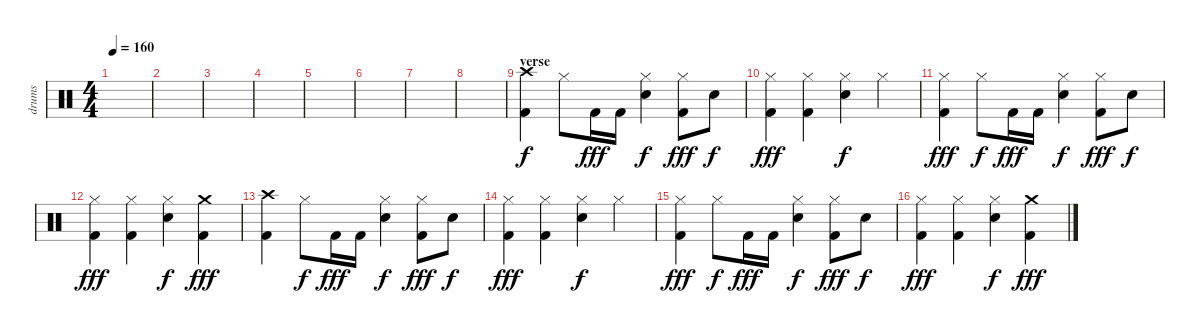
\track ("drums" "drums") {instrument percussion}
\staff {score}
\articulation defaults
\ts (4 4)
\tempo 160
\clef neutral
\ks c
|
|
|
|
|
|
|
|
\section ("" "verse")
("Crash high (hit)" "Kick (hit) 2").4 "Hi-Hat (closed)".8{dy f} "Kick (hit) 2".16{dy fff} "Kick (hit) 2".16 ("Hi-Hat (closed)" "Snare (hit) 2").4{dy f} ("Hi-Hat (closed)" "Kick (hit) 2").8{dy fff} "Snare (hit) 2".8{dy f} |
("Hi-Hat (closed)" "Kick (hit) 2").4{dy fff} ("Hi-Hat (closed)" "Kick (hit) 2").4 ("Hi-Hat (closed)" "Snare (hit) 2").4{dy f} "Hi-Hat (closed)".4 |
("Hi-Hat (closed)" "Kick (hit) 2").4{dy fff} "Hi-Hat (closed)".8{dy f} "Kick (hit) 2".16{dy fff} "Kick (hit) 2".16 ("Hi-Hat (closed)" "Snare (hit) 2").4{dy f} ("Hi-Hat (closed)" "Kick (hit) 2").8{dy fff} "Snare (hit) 2".8{dy f} |
("Hi-Hat (closed)" "Kick (hit) 2").4{dy fff} ("Hi-Hat (closed)" "Kick (hit) 2").4 ("Hi-Hat (closed)" "Snare (hit) 2").4{dy f} ("Crash medium (hit)" "Kick (hit) 2").4{dy fff} |
("Crash high (hit)" "Kick (hit) 2").4 "Hi-Hat (closed)".8{dy f} "Kick (hit) 2".16{dy fff} "Kick (hit) 2".16 ("Hi-Hat (closed)" "Snare (hit) 2").4{dy f} ("Hi-Hat (closed)" "Kick (hit) 2").8{dy fff} "Snare (hit) 2".8{dy f} |
("Hi-Hat (closed)" "Kick (hit) 2").4{dy fff} ("Hi-Hat (closed)" "Kick (hit) 2").4 ("Hi-Hat (closed)" "Snare (hit) 2").4{dy f} "Hi-Hat (closed)".4 |
("Hi-Hat (closed)" "Kick (hit) 2").4{dy fff} "Hi-Hat (closed)".8{dy f} "Kick (hit) 2".16{dy fff} "Kick (hit) 2".16 ("Hi-Hat (closed)" "Snare (hit) 2").4{dy f} ("Hi-Hat (closed)" "Kick (hit) 2").8{dy fff} "Snare (hit) 2".8{dy f} |
("Hi-Hat (closed)" "Kick (hit) 2").4{dy fff} ("Hi-Hat (closed)" "Kick (hit) 2").4 ("Hi-Hat (closed)" "Snare (hit) 2").4{dy f} ("Crash medium (hit)" "Kick (hit) 2").4{dy fff}
